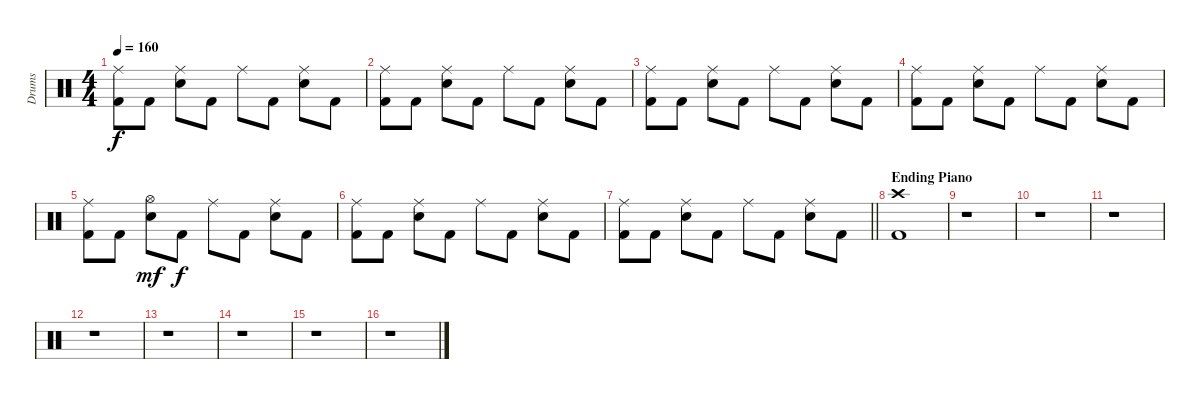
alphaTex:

\track ("Drums" "Drums") {instrument percussion}
\staff {score}
\articulation defaults
\ts (4 4)
\tempo 160
\clef neutral
\ks c
("Ride (middle)" "Kick (hit) 2").8{dy f} "Kick (hit) 2".8 ("Ride (middle)" "Electric Snare (hit)").8 "Kick (hit) 2".8 "Ride (middle)".8 "Kick (hit) 2".8 ("Ride (middle)" "Electric Snare (hit)").8 "Kick (hit) 2".8 |
("Ride (middle)" "Kick (hit) 2").8 "Kick (hit) 2".8 ("Ride (middle)" "Electric Snare (hit)").8 "Kick (hit) 2".8 "Ride (middle)".8 "Kick (hit) 2".8 ("Ride (middle)" "Electric Snare (hit)").8 "Kick (hit) 2".8 |
("Ride (middle)" "Kick (hit) 2").8 "Kick (hit) 2".8 ("Ride (middle)" "Electric Snare (hit)").8 "Kick (hit) 2".8 "Ride (middle)".8 "Kick (hit) 2".8 ("Ride (middle)" "Electric Snare (hit)").8 "Kick (hit) 2".8 |
("Ride (middle)" "Kick (hit) 2").8 "Kick (hit) 2".8 ("Ride (middle)" "Electric Snare (hit)").8 "Kick (hit) 2".8 "Ride (middle)".8 "Kick (hit) 2".8 ("Ride (middle)" "Electric Snare (hit)").8 "Kick (hit) 2".8 |
("Ride (middle)" "Kick (hit) 2").8 "Kick (hit) 2".8 ("Hi-Hat (open)" "Electric Snare (hit)").8{dy mf} "Kick (hit) 2".8{dy f} "Ride (middle)".8 "Kick (hit) 2".8 ("Ride (middle)" "Electric Snare (hit)").8 "Kick (hit) 2".8 |
("Ride (middle)" "Kick (hit) 2").8 "Kick (hit) 2".8 ("Ride (middle)" "Electric Snare (hit)").8 "Kick (hit) 2".8 "Ride (middle)".8 "Kick (hit) 2".8 ("Ride (middle)" "Electric Snare (hit)").8 "Kick (hit) 2".8 |
\barLineRight lightlight
("Ride (middle)" "Kick (hit) 2").8 "Kick (hit) 2".8 ("Ride (middle)" "Electric Snare (hit)").8 "Kick (hit) 2".8 "Ride (middle)".8 "Kick (hit) 2".8 ("Ride (middle)" "Electric Snare (hit)").8 "Kick (hit) 2".8 |
\section ("" "Ending Piano")
("Crash high (hit)" "Kick (hit) 2").1 |
r.1 |
r.1 |
r.1 |
r.1 |
r.1 |
r.1 |
r.1 |
r.1
